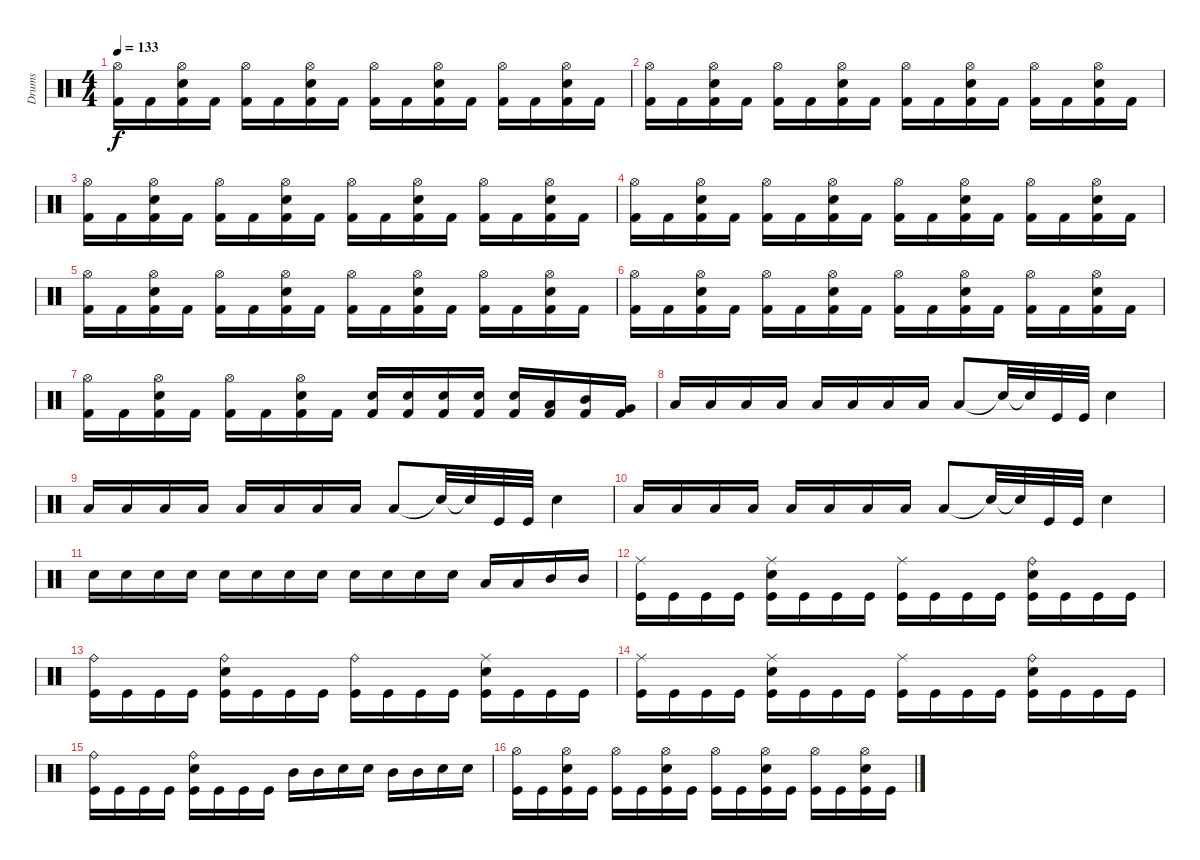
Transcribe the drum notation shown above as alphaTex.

\track ("Drums" "Drums") {instrument percussion}
\staff {score}
\articulation defaults
\ts (4 4)
\tempo 133
\clef neutral
\ks c
("Hi-Hat (open)" "Kick (hit) 2").16{dy f} "Kick (hit) 2".16 ("Hi-Hat (open)" "Electric Snare (hit)" "Kick (hit) 2").16 "Kick (hit) 2".16 ("Hi-Hat (open)" "Kick (hit) 2").16 "Kick (hit) 2".16 ("Hi-Hat (open)" "Electric Snare (hit)" "Kick (hit) 2").16 "Kick (hit) 2".16 ("Hi-Hat (open)" "Kick (hit) 2").16 "Kick (hit) 2".16 ("Hi-Hat (open)" "Electric Snare (hit)" "Kick (hit) 2").16 "Kick (hit) 2".16 ("Hi-Hat (open)" "Kick (hit) 2").16 "Kick (hit) 2".16 ("Hi-Hat (open)" "Electric Snare (hit)" "Kick (hit) 2").16 "Kick (hit) 2".16 |
("Hi-Hat (open)" "Kick (hit) 2").16 "Kick (hit) 2".16 ("Hi-Hat (open)" "Electric Snare (hit)" "Kick (hit) 2").16 "Kick (hit) 2".16 ("Hi-Hat (open)" "Kick (hit) 2").16 "Kick (hit) 2".16 ("Hi-Hat (open)" "Electric Snare (hit)" "Kick (hit) 2").16 "Kick (hit) 2".16 ("Hi-Hat (open)" "Kick (hit) 2").16 "Kick (hit) 2".16 ("Hi-Hat (open)" "Electric Snare (hit)" "Kick (hit) 2").16 "Kick (hit) 2".16 ("Hi-Hat (open)" "Kick (hit) 2").16 "Kick (hit) 2".16 ("Hi-Hat (open)" "Electric Snare (hit)" "Kick (hit) 2").16 "Kick (hit) 2".16 |
("Hi-Hat (open)" "Kick (hit) 2").16 "Kick (hit) 2".16 ("Hi-Hat (open)" "Electric Snare (hit)" "Kick (hit) 2").16 "Kick (hit) 2".16 ("Hi-Hat (open)" "Kick (hit) 2").16 "Kick (hit) 2".16 ("Hi-Hat (open)" "Electric Snare (hit)" "Kick (hit) 2").16 "Kick (hit) 2".16 ("Hi-Hat (open)" "Kick (hit) 2").16 "Kick (hit) 2".16 ("Hi-Hat (open)" "Electric Snare (hit)" "Kick (hit) 2").16 "Kick (hit) 2".16 ("Hi-Hat (open)" "Kick (hit) 2").16 "Kick (hit) 2".16 ("Hi-Hat (open)" "Electric Snare (hit)" "Kick (hit) 2").16 "Kick (hit) 2".16 |
("Hi-Hat (open)" "Kick (hit) 2").16 "Kick (hit) 2".16 ("Hi-Hat (open)" "Electric Snare (hit)" "Kick (hit) 2").16 "Kick (hit) 2".16 ("Hi-Hat (open)" "Kick (hit) 2").16 "Kick (hit) 2".16 ("Hi-Hat (open)" "Electric Snare (hit)" "Kick (hit) 2").16 "Kick (hit) 2".16 ("Hi-Hat (open)" "Kick (hit) 2").16 "Kick (hit) 2".16 ("Hi-Hat (open)" "Electric Snare (hit)" "Kick (hit) 2").16 "Kick (hit) 2".16 ("Hi-Hat (open)" "Kick (hit) 2").16 "Kick (hit) 2".16 ("Hi-Hat (open)" "Electric Snare (hit)" "Kick (hit) 2").16 "Kick (hit) 2".16 |
("Hi-Hat (open)" "Kick (hit) 2").16 "Kick (hit) 2".16 ("Hi-Hat (open)" "Electric Snare (hit)" "Kick (hit) 2").16 "Kick (hit) 2".16 ("Hi-Hat (open)" "Kick (hit) 2").16 "Kick (hit) 2".16 ("Hi-Hat (open)" "Electric Snare (hit)" "Kick (hit) 2").16 "Kick (hit) 2".16 ("Hi-Hat (open)" "Kick (hit) 2").16 "Kick (hit) 2".16 ("Hi-Hat (open)" "Electric Snare (hit)" "Kick (hit) 2").16 "Kick (hit) 2".16 ("Hi-Hat (open)" "Kick (hit) 2").16 "Kick (hit) 2".16 ("Hi-Hat (open)" "Electric Snare (hit)" "Kick (hit) 2").16 "Kick (hit) 2".16 |
("Hi-Hat (open)" "Kick (hit) 2").16 "Kick (hit) 2".16 ("Hi-Hat (open)" "Electric Snare (hit)" "Kick (hit) 2").16 "Kick (hit) 2".16 ("Hi-Hat (open)" "Kick (hit) 2").16 "Kick (hit) 2".16 ("Hi-Hat (open)" "Electric Snare (hit)" "Kick (hit) 2").16 "Kick (hit) 2".16 ("Hi-Hat (open)" "Kick (hit) 2").16 "Kick (hit) 2".16 ("Hi-Hat (open)" "Electric Snare (hit)" "Kick (hit) 2").16 "Kick (hit) 2".16 ("Hi-Hat (open)" "Kick (hit) 2").16 "Kick (hit) 2".16 ("Hi-Hat (open)" "Electric Snare (hit)" "Kick (hit) 2").16 "Kick (hit) 2".16 |
("Hi-Hat (open)" "Kick (hit) 2").16 "Kick (hit) 2".16 ("Hi-Hat (open)" "Electric Snare (hit)" "Kick (hit) 2").16 "Kick (hit) 2".16 ("Hi-Hat (open)" "Kick (hit) 2").16 "Kick (hit) 2".16 ("Hi-Hat (open)" "Electric Snare (hit)" "Kick (hit) 2").16 "Kick (hit) 2".16 ("Electric Snare (hit)" "Kick (hit) 2").16 ("Electric Snare (hit)" "Kick (hit) 2").16 ("Electric Snare (hit)" "Kick (hit) 2").16 ("Electric Snare (hit)" "Kick (hit) 2").16 ("Electric Snare (hit)" "Kick (hit) 2").16 ("Low Tom (hit)" "Kick (hit) 2").16 ("Mid Tom (hit)" "Kick (hit) 2").16 ("Very Low Tom (hit)" "Kick (hit) 2").16 |
"Low Floor Tom (hit)".16 "Low Floor Tom (hit)".16 "Low Floor Tom (hit)".16 "Low Floor Tom (hit)".16 "Low Floor Tom (hit)".16 "Low Floor Tom (hit)".16 "Low Floor Tom (hit)".16 "Low Floor Tom (hit)".16 "Low Floor Tom (hit)".8 "Snare (hit)"{t}.32 "Snare (hit)"{t}.32 "Kick (hit)".32 "Kick (hit)".32 "Electric Snare (hit)".4 |
"Low Floor Tom (hit)".16 "Low Floor Tom (hit)".16 "Low Floor Tom (hit)".16 "Low Floor Tom (hit)".16 "Low Floor Tom (hit)".16 "Low Floor Tom (hit)".16 "Low Floor Tom (hit)".16 "Low Floor Tom (hit)".16 "Low Floor Tom (hit)".8 "Snare (hit)"{t}.32 "Snare (hit)"{t}.32 "Kick (hit)".32 "Kick (hit)".32 "Electric Snare (hit)".4 |
"Low Floor Tom (hit)".16 "Low Floor Tom (hit)".16 "Low Floor Tom (hit)".16 "Low Floor Tom (hit)".16 "Low Floor Tom (hit)".16 "Low Floor Tom (hit)".16 "Low Floor Tom (hit)".16 "Low Floor Tom (hit)".16 "Low Floor Tom (hit)".8 "Snare (hit)"{t}.32 "Snare (hit)"{t}.32 "Kick (hit)".32 "Kick (hit)".32 "Electric Snare (hit)".4 |
"Electric Snare (hit)".16 "Electric Snare (hit)".16 "Electric Snare (hit)".16 "Electric Snare (hit)".16 "Electric Snare (hit)".16 "Electric Snare (hit)".16 "Electric Snare (hit)".16 "Electric Snare (hit)".16 "Electric Snare (hit)".16 "Electric Snare (hit)".16 "Electric Snare (hit)".16 "Electric Snare (hit)".16 "Low Tom (hit)".16 "Low Tom (hit)".16 "Mid Tom (hit)".16 "Mid Tom (hit)".16 |
("Ride (middle)" "Kick (hit)").16 "Kick (hit)".16 "Kick (hit)".16 "Kick (hit)".16 ("Ride (middle)" "Electric Snare (hit)" "Kick (hit)").16 "Kick (hit)".16 "Kick (hit)".16 "Kick (hit)".16 ("Ride (middle)" "Kick (hit)").16 "Kick (hit)".16 "Kick (hit)".16 "Kick (hit)".16 ("Ride (bell)" "Electric Snare (hit)" "Kick (hit)").16 "Kick (hit)".16 "Kick (hit)".16 "Kick (hit)".16 |
("Ride (bell)" "Kick (hit)").16 "Kick (hit)".16 "Kick (hit)".16 "Kick (hit)".16 ("Ride (bell)" "Electric Snare (hit)" "Kick (hit)").16 "Kick (hit)".16 "Kick (hit)".16 "Kick (hit)".16 ("Ride (bell)" "Kick (hit)").16 "Kick (hit)".16 "Kick (hit)".16 "Kick (hit)".16 ("Ride (middle)" "Electric Snare (hit)" "Kick (hit)").16 "Kick (hit)".16 "Kick (hit)".16 "Kick (hit)".16 |
("Ride (middle)" "Kick (hit)").16 "Kick (hit)".16 "Kick (hit)".16 "Kick (hit)".16 ("Ride (middle)" "Electric Snare (hit)" "Kick (hit)").16 "Kick (hit)".16 "Kick (hit)".16 "Kick (hit)".16 ("Ride (middle)" "Kick (hit)").16 "Kick (hit)".16 "Kick (hit)".16 "Kick (hit)".16 ("Ride (bell)" "Electric Snare (hit)" "Kick (hit)").16 "Kick (hit)".16 "Kick (hit)".16 "Kick (hit)".16 |
("Ride (bell)" "Kick (hit)").16 "Kick (hit)".16 "Kick (hit)".16 "Kick (hit)".16 ("Ride (bell)" "Electric Snare (hit)" "Kick (hit)").16 "Kick (hit)".16 "Kick (hit)".16 "Kick (hit)".16 "Mid Tom (hit)".16 "Mid Tom (hit)".16 "Electric Snare (hit)".16 "Electric Snare (hit)".16 "Mid Tom (hit)".16 "Mid Tom (hit)".16 "Electric Snare (hit)".16 "Electric Snare (hit)".16 |
("Hi-Hat (open)" "Kick (hit)").16 "Kick (hit)".16 ("Hi-Hat (open)" "Electric Snare (hit)" "Kick (hit)").16 "Kick (hit)".16 ("Hi-Hat (open)" "Kick (hit)").16 "Kick (hit)".16 ("Hi-Hat (open)" "Electric Snare (hit)" "Kick (hit)").16 "Kick (hit)".16 ("Hi-Hat (open)" "Kick (hit)").16 "Kick (hit)".16 ("Hi-Hat (open)" "Electric Snare (hit)" "Kick (hit)").16 "Kick (hit)".16 ("Hi-Hat (open)" "Kick (hit)").16 "Kick (hit)".16 ("Hi-Hat (open)" "Electric Snare (hit)" "Kick (hit)").16 "Kick (hit)".16
